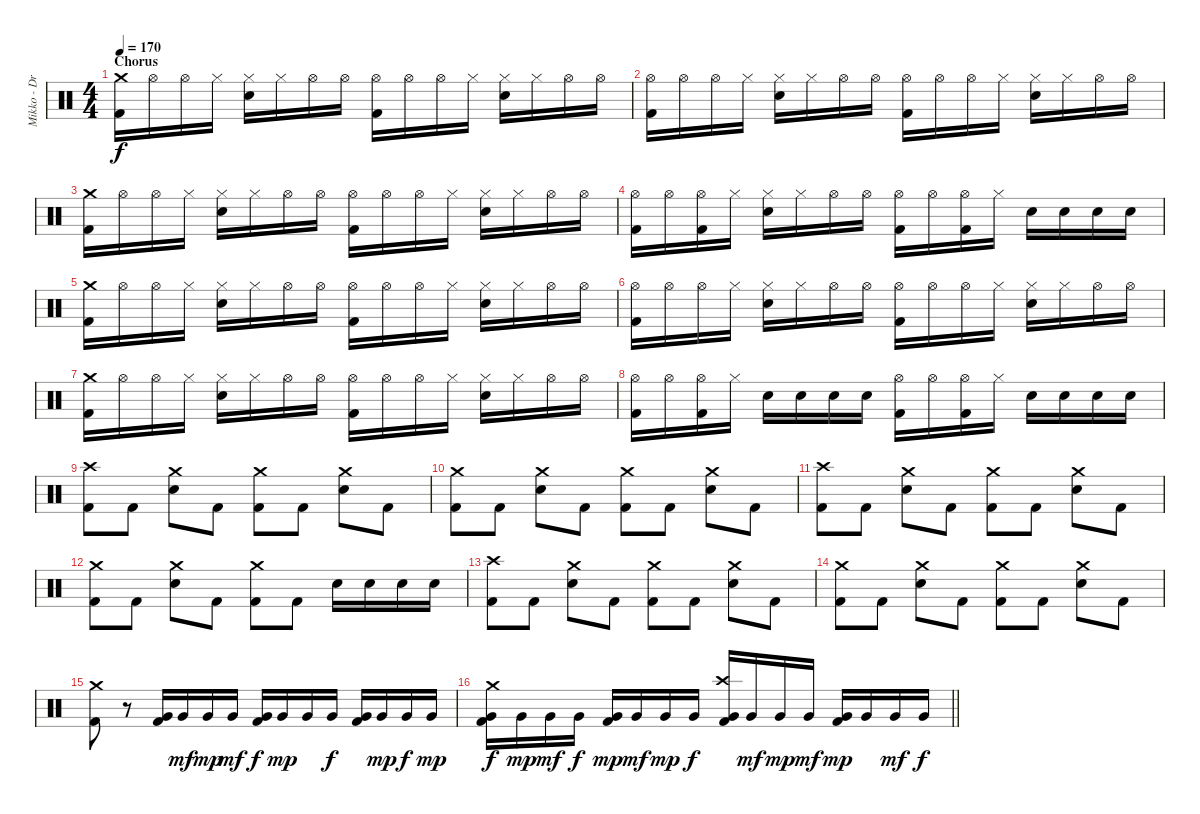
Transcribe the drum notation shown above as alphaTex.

\track ("Mikko - Drums" "Mikko - Dr") {instrument percussion}
\staff {score}
\articulation defaults
\ts (4 4)
\section ("" "Chorus")
\tempo 170
\clef neutral
\ks c
("Crash medium (hit)" "Kick (hit) 2").16{dy f} "Hi-Hat (open)".16 "Hi-Hat (open)".16 "Hi-Hat (closed)".16 ("Hi-Hat (closed)" "Snare (hit) 2").16 "Hi-Hat (closed)".16 "Hi-Hat (open)".16 "Hi-Hat (open)".16 ("Hi-Hat (open)" "Kick (hit) 2").16 "Hi-Hat (open)".16 "Hi-Hat (open)".16 "Hi-Hat (closed)".16 ("Hi-Hat (closed)" "Snare (hit) 2").16 "Hi-Hat (closed)".16 "Hi-Hat (open)".16 "Hi-Hat (open)".16 |
("Hi-Hat (open)" "Kick (hit) 2").16 "Hi-Hat (open)".16 "Hi-Hat (open)".16 "Hi-Hat (closed)".16 ("Hi-Hat (closed)" "Snare (hit) 2").16 "Hi-Hat (closed)".16 "Hi-Hat (open)".16 "Hi-Hat (open)".16 ("Hi-Hat (open)" "Kick (hit) 2").16 "Hi-Hat (open)".16 "Hi-Hat (open)".16 "Hi-Hat (closed)".16 ("Hi-Hat (closed)" "Snare (hit) 2").16 "Hi-Hat (closed)".16 "Hi-Hat (open)".16 "Hi-Hat (open)".16 |
("Crash medium (hit)" "Kick (hit) 2").16 "Hi-Hat (open)".16 "Hi-Hat (open)".16 "Hi-Hat (closed)".16 ("Hi-Hat (closed)" "Snare (hit) 2").16 "Hi-Hat (closed)".16 "Hi-Hat (open)".16 "Hi-Hat (open)".16 ("Hi-Hat (open)" "Kick (hit) 2").16 "Hi-Hat (open)".16 "Hi-Hat (open)".16 "Hi-Hat (closed)".16 ("Hi-Hat (closed)" "Snare (hit) 2").16 "Hi-Hat (closed)".16 "Hi-Hat (open)".16 "Hi-Hat (open)".16 |
("Hi-Hat (open)" "Kick (hit) 2").16 "Hi-Hat (open)".16 ("Hi-Hat (open)" "Kick (hit) 2").16 "Hi-Hat (closed)".16 ("Hi-Hat (closed)" "Snare (hit) 2").16 "Hi-Hat (closed)".16 "Hi-Hat (open)".16 "Hi-Hat (open)".16 ("Hi-Hat (open)" "Kick (hit) 2").16 "Hi-Hat (open)".16 ("Hi-Hat (open)" "Kick (hit) 2").16 "Hi-Hat (closed)".16 "Snare (hit) 2".16 "Snare (hit) 2".16 "Snare (hit) 2".16 "Snare (hit) 2".16 |
("Crash medium (hit)" "Kick (hit) 2").16 "Hi-Hat (open)".16 "Hi-Hat (open)".16 "Hi-Hat (closed)".16 ("Hi-Hat (closed)" "Snare (hit) 2").16 "Hi-Hat (closed)".16 "Hi-Hat (open)".16 "Hi-Hat (open)".16 ("Hi-Hat (open)" "Kick (hit) 2").16 "Hi-Hat (open)".16 "Hi-Hat (open)".16 "Hi-Hat (closed)".16 ("Hi-Hat (closed)" "Snare (hit) 2").16 "Hi-Hat (closed)".16 "Hi-Hat (open)".16 "Hi-Hat (open)".16 |
("Hi-Hat (open)" "Kick (hit) 2").16 "Hi-Hat (open)".16 "Hi-Hat (open)".16 "Hi-Hat (closed)".16 ("Hi-Hat (closed)" "Snare (hit) 2").16 "Hi-Hat (closed)".16 "Hi-Hat (open)".16 "Hi-Hat (open)".16 ("Hi-Hat (open)" "Kick (hit) 2").16 "Hi-Hat (open)".16 "Hi-Hat (open)".16 "Hi-Hat (closed)".16 ("Hi-Hat (closed)" "Snare (hit) 2").16 "Hi-Hat (closed)".16 "Hi-Hat (open)".16 "Hi-Hat (open)".16 |
("Crash medium (hit)" "Kick (hit) 2").16 "Hi-Hat (open)".16 "Hi-Hat (open)".16 "Hi-Hat (closed)".16 ("Hi-Hat (closed)" "Snare (hit) 2").16 "Hi-Hat (closed)".16 "Hi-Hat (open)".16 "Hi-Hat (open)".16 ("Hi-Hat (open)" "Kick (hit) 2").16 "Hi-Hat (open)".16 "Hi-Hat (open)".16 "Hi-Hat (closed)".16 ("Hi-Hat (closed)" "Snare (hit) 2").16 "Hi-Hat (closed)".16 "Hi-Hat (open)".16 "Hi-Hat (open)".16 |
("Hi-Hat (open)" "Kick (hit) 2").16 "Hi-Hat (open)".16 ("Hi-Hat (open)" "Kick (hit) 2").16 "Hi-Hat (closed)".16 "Snare (hit) 2".16 "Snare (hit) 2".16 "Snare (hit) 2".16 "Snare (hit) 2".16 ("Hi-Hat (open)" "Kick (hit) 2").16 "Hi-Hat (open)".16 ("Hi-Hat (open)" "Kick (hit) 2").16 "Hi-Hat (closed)".16 "Snare (hit) 2".16 "Snare (hit) 2".16 "Snare (hit) 2".16 "Snare (hit) 2".16 |
("Crash high (hit)" "Kick (hit) 2").8 "Kick (hit) 2".8 ("Crash medium (hit)" "Snare (hit) 2").8 "Kick (hit) 2".8 ("Crash medium (hit)" "Kick (hit) 2").8 "Kick (hit) 2".8 ("Crash medium (hit)" "Snare (hit) 2").8 "Kick (hit) 2".8 |
("Crash medium (hit)" "Kick (hit) 2").8 "Kick (hit) 2".8 ("Crash medium (hit)" "Snare (hit) 2").8 "Kick (hit) 2".8 ("Crash medium (hit)" "Kick (hit) 2").8 "Kick (hit) 2".8 ("Crash medium (hit)" "Snare (hit) 2").8 "Kick (hit) 2".8 |
("Crash high (hit)" "Kick (hit) 2").8 "Kick (hit) 2".8 ("Crash medium (hit)" "Snare (hit) 2").8 "Kick (hit) 2".8 ("Crash medium (hit)" "Kick (hit) 2").8 "Kick (hit) 2".8 ("Crash medium (hit)" "Snare (hit) 2").8 "Kick (hit) 2".8 |
("Crash medium (hit)" "Kick (hit) 2").8 "Kick (hit) 2".8 ("Crash medium (hit)" "Snare (hit) 2").8 "Kick (hit) 2".8 ("Crash medium (hit)" "Kick (hit) 2").8 "Kick (hit) 2".8 "Snare (hit) 2".16 "Snare (hit) 2".16 "Snare (hit) 2".16 "Snare (hit) 2".16 |
("Crash high (hit)" "Kick (hit) 2").8 "Kick (hit) 2".8 ("Crash medium (hit)" "Snare (hit) 2").8 "Kick (hit) 2".8 ("Crash medium (hit)" "Kick (hit) 2").8 "Kick (hit) 2".8 ("Crash medium (hit)" "Snare (hit) 2").8 "Kick (hit) 2".8 |
("Crash medium (hit)" "Kick (hit) 2").8 "Kick (hit) 2".8 ("Crash medium (hit)" "Snare (hit) 2").8 "Kick (hit) 2".8 ("Crash medium (hit)" "Kick (hit) 2").8 "Kick (hit) 2".8 ("Crash medium (hit)" "Snare (hit) 2").8 "Kick (hit) 2".8 |
("Crash medium (hit)" "Kick (hit) 2").8 r.8 ("Very Low Tom (hit)" "Kick (hit) 2").16 "Very Low Tom (hit)".16{dy mf} "Very Low Tom (hit)".16{dy mp} "Very Low Tom (hit)".16{dy mf} ("Very Low Tom (hit)" "Kick (hit) 2").16{dy f} "Very Low Tom (hit)".16{dy mp} "Very Low Tom (hit)".16 "Very Low Tom (hit)".16{dy f} ("Very Low Tom (hit)" "Kick (hit) 2").16 "Very Low Tom (hit)".16{dy mp} "Very Low Tom (hit)".16{dy f} "Very Low Tom (hit)".16{dy mp} |
\barLineRight lightlight
("Crash medium (hit)" "Very Low Tom (hit)" "Kick (hit) 2").16{dy f} "Very Low Tom (hit)".16{dy mp} "Very Low Tom (hit)".16{dy mf} "Very Low Tom (hit)".16{dy f} ("Very Low Tom (hit)" "Kick (hit) 2").16{dy mp} "Very Low Tom (hit)".16{dy mf} "Very Low Tom (hit)".16{dy mp} "Very Low Tom (hit)".16{dy f} ("Crash high (hit)" "Very Low Tom (hit)" "Kick (hit) 2").16 "Very Low Tom (hit)".16{dy mf} "Very Low Tom (hit)".16{dy mp} "Very Low Tom (hit)".16{dy mf} ("Very Low Tom (hit)" "Kick (hit) 2").16{dy mp} "Very Low Tom (hit)".16 "Very Low Tom (hit)".16{dy mf} "Very Low Tom (hit)".16{dy f}
